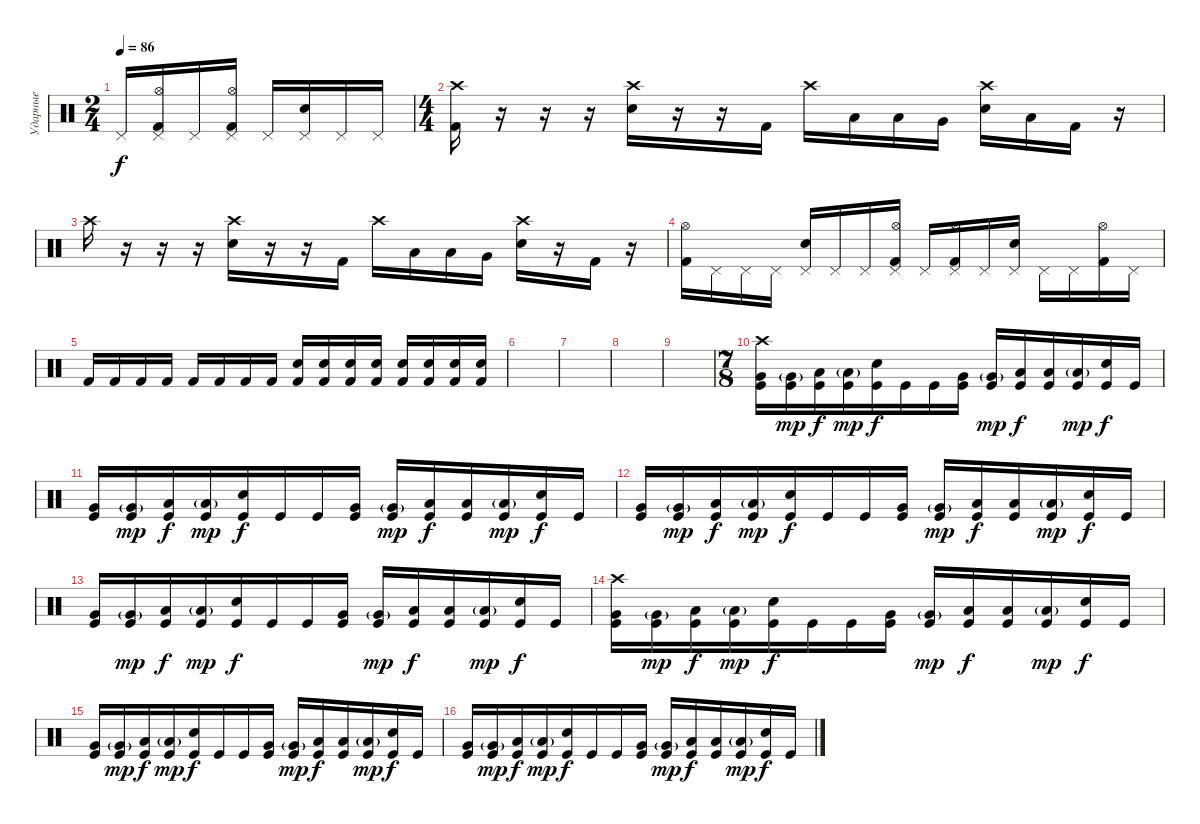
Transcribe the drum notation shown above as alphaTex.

\track ("Ударные" "Ударные") {instrument percussion}
\staff {score}
\articulation defaults
\ts (2 4)
\tempo 86
\clef neutral
\ks c "Pedal Hi-Hat (hit)".16{dy f}
("Pedal Hi-Hat (hit)" "Hi-Hat (open)" "Kick (hit) 2").16 "Pedal Hi-Hat (hit)".16 ("Pedal Hi-Hat (hit)" "Hi-Hat (open)" "Kick (hit) 2").16 "Pedal Hi-Hat (hit)".16 ("Pedal Hi-Hat (hit)" "Electric Snare (hit)").16 "Pedal Hi-Hat (hit)".16 "Pedal Hi-Hat (hit)".16 |
\ts (4 4)
("Crash high (hit)" "Kick (hit) 2").16 r.16 r.16 r.16 ("Crash high (hit)" "Electric Snare (hit)").16 r.16 r.16 "Kick (hit) 2".16 "Crash high (hit)".16 "Low Tom (hit)".16 "Low Tom (hit)".16 "Very Low Tom (hit)".16 ("Crash high (hit)" "Electric Snare (hit)").16 "Low Tom (hit)".16 "Kick (hit) 2".16 r.16 |
"Crash high (hit)".16 r.16 r.16 r.16 ("Crash high (hit)" "Electric Snare (hit)").16 r.16 r.16 "Kick (hit) 2".16 "Crash high (hit)".16 "Low Tom (hit)".16 "Low Tom (hit)".16 "Very Low Tom (hit)".16 ("Crash high (hit)" "Electric Snare (hit)").16 r.16 "Kick (hit) 2".16 r.16 |
("Hi-Hat (open)" "Kick (hit) 2").16 "Pedal Hi-Hat (hit)".16 "Pedal Hi-Hat (hit)".16 "Pedal Hi-Hat (hit)".16 ("Pedal Hi-Hat (hit)" "Electric Snare (hit)").16 "Pedal Hi-Hat (hit)".16 "Pedal Hi-Hat (hit)".16 ("Pedal Hi-Hat (hit)" "Hi-Hat (open)" "Kick (hit) 2").16 "Pedal Hi-Hat (hit)".16 ("Pedal Hi-Hat (hit)" "Hi-Hat (open)" "Kick (hit) 2").16 "Pedal Hi-Hat (hit)".16 ("Pedal Hi-Hat (hit)" "Electric Snare (hit)").16 "Pedal Hi-Hat (hit)".16 "Pedal Hi-Hat (hit)".16 ("Hi-Hat (open)" "Kick (hit) 2").16 "Pedal Hi-Hat (hit)".16 |
"Kick (hit) 2".16 "Kick (hit) 2".16 "Kick (hit) 2".16 "Kick (hit) 2".16 "Kick (hit) 2".16 "Kick (hit) 2".16 "Kick (hit) 2".16 "Kick (hit) 2".16 ("Electric Snare (hit)" "Kick (hit) 2").16 ("Electric Snare (hit)" "Kick (hit) 2").16 ("Electric Snare (hit)" "Kick (hit) 2").16 ("Electric Snare (hit)" "Kick (hit) 2").16 ("Electric Snare (hit)" "Kick (hit) 2").16 ("Electric Snare (hit)" "Kick (hit) 2").16 ("Electric Snare (hit)" "Kick (hit) 2").16 ("Electric Snare (hit)" "Kick (hit) 2").16 |
|
|
|
|
\ts (7 8)
("Crash high (hit)" "Very Low Tom (hit)" "Kick (hit)").16 ("Very Low Tom (hit)"{g} "Kick (hit)").16{dy mp} ("Low Floor Tom (hit)" "Kick (hit)").16{dy f} ("Low Floor Tom (hit)"{g} "Kick (hit)").16{dy mp} ("Electric Snare (hit)" "Kick (hit)").16{dy f} "Kick (hit)".16 "Kick (hit)".16 ("Very Low Tom (hit)" "Kick (hit)").16 ("Very Low Tom (hit)"{g} "Kick (hit)").16{dy mp} ("Low Floor Tom (hit)" "Kick (hit)").16{dy f} ("Low Floor Tom (hit)" "Kick (hit)").16 ("Low Floor Tom (hit)"{g} "Kick (hit)").16{dy mp} ("Electric Snare (hit)" "Kick (hit)").16{dy f} "Kick (hit)".16 |
("Very Low Tom (hit)" "Kick (hit)").16 ("Very Low Tom (hit)"{g} "Kick (hit)").16{dy mp} ("Low Floor Tom (hit)" "Kick (hit)").16{dy f} ("Low Floor Tom (hit)"{g} "Kick (hit)").16{dy mp} ("Electric Snare (hit)" "Kick (hit)").16{dy f} "Kick (hit)".16 "Kick (hit)".16 ("Very Low Tom (hit)" "Kick (hit)").16 ("Very Low Tom (hit)"{g} "Kick (hit)").16{dy mp} ("Low Floor Tom (hit)" "Kick (hit)").16{dy f} ("Low Floor Tom (hit)" "Kick (hit)").16 ("Low Floor Tom (hit)"{g} "Kick (hit)").16{dy mp} ("Electric Snare (hit)" "Kick (hit)").16{dy f} "Kick (hit)".16 |
("Very Low Tom (hit)" "Kick (hit)").16 ("Very Low Tom (hit)"{g} "Kick (hit)").16{dy mp} ("Low Floor Tom (hit)" "Kick (hit)").16{dy f} ("Low Floor Tom (hit)"{g} "Kick (hit)").16{dy mp} ("Electric Snare (hit)" "Kick (hit)").16{dy f} "Kick (hit)".16 "Kick (hit)".16 ("Very Low Tom (hit)" "Kick (hit)").16 ("Very Low Tom (hit)"{g} "Kick (hit)").16{dy mp} ("Low Floor Tom (hit)" "Kick (hit)").16{dy f} ("Low Floor Tom (hit)" "Kick (hit)").16 ("Low Floor Tom (hit)"{g} "Kick (hit)").16{dy mp} ("Electric Snare (hit)" "Kick (hit)").16{dy f} "Kick (hit)".16 |
("Very Low Tom (hit)" "Kick (hit)").16 ("Very Low Tom (hit)"{g} "Kick (hit)").16{dy mp} ("Low Floor Tom (hit)" "Kick (hit)").16{dy f} ("Low Floor Tom (hit)"{g} "Kick (hit)").16{dy mp} ("Electric Snare (hit)" "Kick (hit)").16{dy f} "Kick (hit)".16 "Kick (hit)".16 ("Very Low Tom (hit)" "Kick (hit)").16 ("Very Low Tom (hit)"{g} "Kick (hit)").16{dy mp} ("Low Floor Tom (hit)" "Kick (hit)").16{dy f} ("Low Floor Tom (hit)" "Kick (hit)").16 ("Low Floor Tom (hit)"{g} "Kick (hit)").16{dy mp} ("Electric Snare (hit)" "Kick (hit)").16{dy f} "Kick (hit)".16 |
("Crash high (hit)" "Very Low Tom (hit)" "Kick (hit)").16 ("Very Low Tom (hit)"{g} "Kick (hit)").16{dy mp} ("Low Floor Tom (hit)" "Kick (hit)").16{dy f} ("Low Floor Tom (hit)"{g} "Kick (hit)").16{dy mp} ("Electric Snare (hit)" "Kick (hit)").16{dy f} "Kick (hit)".16 "Kick (hit)".16 ("Very Low Tom (hit)" "Kick (hit)").16 ("Very Low Tom (hit)"{g} "Kick (hit)").16{dy mp} ("Low Floor Tom (hit)" "Kick (hit)").16{dy f} ("Low Floor Tom (hit)" "Kick (hit)").16 ("Low Floor Tom (hit)"{g} "Kick (hit)").16{dy mp} ("Electric Snare (hit)" "Kick (hit)").16{dy f} "Kick (hit)".16 |
("Very Low Tom (hit)" "Kick (hit)").16 ("Very Low Tom (hit)"{g} "Kick (hit)").16{dy mp} ("Low Floor Tom (hit)" "Kick (hit)").16{dy f} ("Low Floor Tom (hit)"{g} "Kick (hit)").16{dy mp} ("Electric Snare (hit)" "Kick (hit)").16{dy f} "Kick (hit)".16 "Kick (hit)".16 ("Very Low Tom (hit)" "Kick (hit)").16 ("Very Low Tom (hit)"{g} "Kick (hit)").16{dy mp} ("Low Floor Tom (hit)" "Kick (hit)").16{dy f} ("Low Floor Tom (hit)" "Kick (hit)").16 ("Low Floor Tom (hit)"{g} "Kick (hit)").16{dy mp} ("Electric Snare (hit)" "Kick (hit)").16{dy f} "Kick (hit)".16 |
("Very Low Tom (hit)" "Kick (hit)").16 ("Very Low Tom (hit)"{g} "Kick (hit)").16{dy mp} ("Low Floor Tom (hit)" "Kick (hit)").16{dy f} ("Low Floor Tom (hit)"{g} "Kick (hit)").16{dy mp} ("Electric Snare (hit)" "Kick (hit)").16{dy f} "Kick (hit)".16 "Kick (hit)".16 ("Very Low Tom (hit)" "Kick (hit)").16 ("Very Low Tom (hit)"{g} "Kick (hit)").16{dy mp} ("Low Floor Tom (hit)" "Kick (hit)").16{dy f} ("Low Floor Tom (hit)" "Kick (hit)").16 ("Low Floor Tom (hit)"{g} "Kick (hit)").16{dy mp} ("Electric Snare (hit)" "Kick (hit)").16{dy f} "Kick (hit)".16
